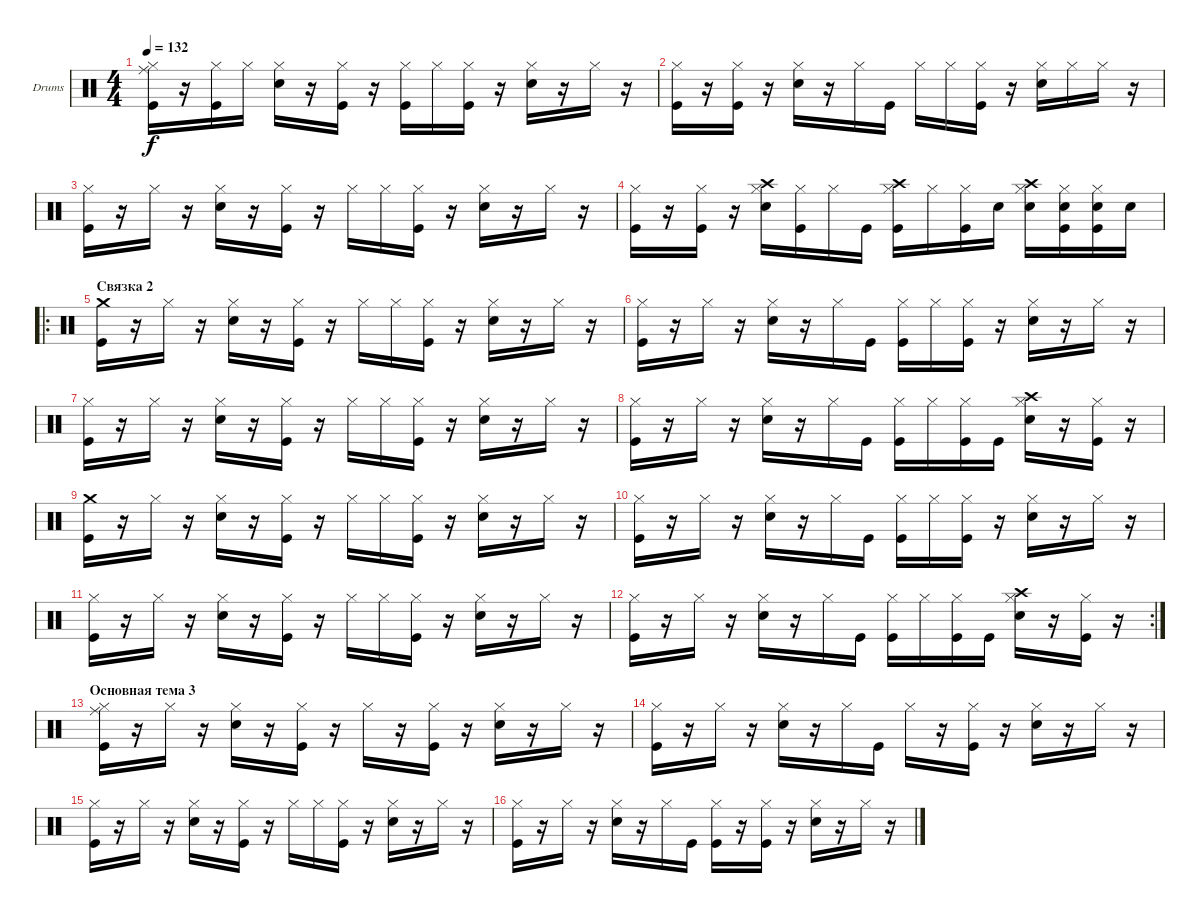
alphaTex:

\defaultSystemsLayout 4
\bracketExtendMode groupsimilarinstruments
\firstSystemTrackNameOrientation horizontal
\otherSystemsTrackNameOrientation horizontal
\track ("Drumkit" "Drums") {instrument percussion}
\staff {score}
\articulation defaults
\ts (4 4)
\tempo 132
\clef neutral
\ks c
("Kick (hit)" "Ride (middle)" "Hi-Hat (closed)").16{dy f} r.16 ("Kick (hit)" "Hi-Hat (closed)").16 "Hi-Hat (closed)".16 ("Snare (hit) 2" "Hi-Hat (closed)").16 r.16 ("Kick (hit)" "Hi-Hat (closed)").16 r.16 ("Kick (hit)" "Hi-Hat (closed)").16 "Hi-Hat (closed)".16 ("Kick (hit)" "Hi-Hat (closed)").16 r.16 ("Snare (hit) 2" "Hi-Hat (closed)").16 r.16 "Hi-Hat (closed)".16 r.16 |
("Kick (hit)" "Hi-Hat (closed)").16 r.16 ("Kick (hit)" "Hi-Hat (closed)").16 r.16 ("Snare (hit) 2" "Hi-Hat (closed)").16 r.16 "Hi-Hat (closed)".16 "Kick (hit)".16 "Hi-Hat (closed)".16 "Hi-Hat (closed)".16 ("Kick (hit)" "Hi-Hat (closed)").16 r.16 ("Snare (hit) 2" "Hi-Hat (closed)").16 "Hi-Hat (closed)".16 "Hi-Hat (closed)".16 r.16 |
("Kick (hit)" "Hi-Hat (closed)").16 r.16 "Hi-Hat (closed)".16 r.16 ("Snare (hit) 2" "Hi-Hat (closed)").16 r.16 ("Kick (hit)" "Hi-Hat (closed)").16 r.16 "Hi-Hat (closed)".16 "Hi-Hat (closed)".16 ("Kick (hit)" "Hi-Hat (closed)").16 r.16 ("Snare (hit) 2" "Hi-Hat (closed)").16 r.16 "Hi-Hat (closed)".16 r.16 |
("Kick (hit)" "Hi-Hat (closed)").16 r.16 ("Kick (hit)" "Hi-Hat (closed)").16 r.16 ("Snare (hit) 2" "Crash high (hit)" "Hi-Hat (closed)").16 ("Kick (hit)" "Hi-Hat (closed)").16 "Hi-Hat (closed)".16 "Kick (hit)".16 ("Kick (hit)" "Crash high (hit)" "Hi-Hat (closed)").16 "Hi-Hat (closed)".16 ("Kick (hit)" "Hi-Hat (closed)").16 "Snare (hit) 2".16 ("Snare (hit) 2" "Crash high (hit)" "Hi-Hat (closed)").16 ("Kick (hit)" "Snare (hit) 2" "Hi-Hat (closed)").16 ("Kick (hit)" "Snare (hit) 2" "Hi-Hat (closed)").16 "Snare (hit) 2".16 |
\ro
\section ("" "Связка 2")
("Kick (hit)" "Crash medium (hit)").16 r.16 "Hi-Hat (closed)".16 r.16 ("Snare (hit) 2" "Hi-Hat (closed)").16 r.16 ("Kick (hit)" "Hi-Hat (closed)").16 r.16 "Hi-Hat (closed)".16 "Hi-Hat (closed)".16 ("Kick (hit)" "Hi-Hat (closed)").16 r.16 ("Snare (hit) 2" "Hi-Hat (closed)").16 r.16 "Hi-Hat (closed)".16 r.16 |
("Kick (hit)" "Hi-Hat (closed)").16 r.16 "Hi-Hat (closed)".16 r.16 ("Snare (hit) 2" "Hi-Hat (closed)").16 r.16 "Hi-Hat (closed)".16 "Kick (hit)".16 ("Kick (hit)" "Hi-Hat (closed)").16 "Hi-Hat (closed)".16 ("Kick (hit)" "Hi-Hat (closed)").16 r.16 ("Snare (hit) 2" "Hi-Hat (closed)").16 r.16 "Hi-Hat (closed)".16 r.16 |
("Kick (hit)" "Hi-Hat (closed)").16 r.16 "Hi-Hat (closed)".16 r.16 ("Snare (hit) 2" "Hi-Hat (closed)").16 r.16 ("Kick (hit)" "Hi-Hat (closed)").16 r.16 "Hi-Hat (closed)".16 "Hi-Hat (closed)".16 ("Kick (hit)" "Hi-Hat (closed)").16 r.16 ("Snare (hit) 2" "Hi-Hat (closed)").16 r.16 "Hi-Hat (closed)".16 r.16 |
("Kick (hit)" "Hi-Hat (closed)").16 r.16 "Hi-Hat (closed)".16 r.16 ("Snare (hit) 2" "Hi-Hat (closed)").16 r.16 "Hi-Hat (closed)".16 "Kick (hit)".16 ("Kick (hit)" "Hi-Hat (closed)").16 "Hi-Hat (closed)".16 ("Kick (hit)" "Hi-Hat (closed)").16 "Kick (hit)".16 ("Snare (hit) 2" "Crash high (hit)" "Hi-Hat (closed)").16 r.16 ("Kick (hit)" "Hi-Hat (closed)").16 r.16 |
("Kick (hit)" "Crash medium (hit)").16 r.16 "Hi-Hat (closed)".16 r.16 ("Snare (hit) 2" "Hi-Hat (closed)").16 r.16 ("Kick (hit)" "Hi-Hat (closed)").16 r.16 "Hi-Hat (closed)".16 "Hi-Hat (closed)".16 ("Kick (hit)" "Hi-Hat (closed)").16 r.16 ("Snare (hit) 2" "Hi-Hat (closed)").16 r.16 "Hi-Hat (closed)".16 r.16 |
("Kick (hit)" "Hi-Hat (closed)").16 r.16 "Hi-Hat (closed)".16 r.16 ("Snare (hit) 2" "Hi-Hat (closed)").16 r.16 "Hi-Hat (closed)".16 "Kick (hit)".16 ("Kick (hit)" "Hi-Hat (closed)").16 "Hi-Hat (closed)".16 ("Kick (hit)" "Hi-Hat (closed)").16 r.16 ("Snare (hit) 2" "Hi-Hat (closed)").16 r.16 "Hi-Hat (closed)".16 r.16 |
("Kick (hit)" "Hi-Hat (closed)").16 r.16 "Hi-Hat (closed)".16 r.16 ("Snare (hit) 2" "Hi-Hat (closed)").16 r.16 ("Kick (hit)" "Hi-Hat (closed)").16 r.16 "Hi-Hat (closed)".16 "Hi-Hat (closed)".16 ("Kick (hit)" "Hi-Hat (closed)").16 r.16 ("Snare (hit) 2" "Hi-Hat (closed)").16 r.16 "Hi-Hat (closed)".16 r.16 |
\rc 2
("Kick (hit)" "Hi-Hat (closed)").16 r.16 "Hi-Hat (closed)".16 r.16 ("Snare (hit) 2" "Hi-Hat (closed)").16 r.16 "Hi-Hat (closed)".16 "Kick (hit)".16 ("Kick (hit)" "Hi-Hat (closed)").16 "Hi-Hat (closed)".16 ("Kick (hit)" "Hi-Hat (closed)").16 "Kick (hit)".16 ("Snare (hit) 2" "Crash high (hit)" "Hi-Hat (closed)").16 r.16 ("Kick (hit)" "Hi-Hat (closed)").16 r.16 |
\section ("" "Основная тема 3")
("Kick (hit)" "Ride (middle)" "Hi-Hat (closed)").16 r.16 "Hi-Hat (closed)".16 r.16 ("Snare (hit) 2" "Hi-Hat (closed)").16 r.16 ("Kick (hit)" "Hi-Hat (closed)").16 r.16 "Hi-Hat (closed)".16 r.16 ("Kick (hit)" "Hi-Hat (closed)").16 r.16 ("Snare (hit) 2" "Hi-Hat (closed)").16 r.16 "Hi-Hat (closed)".16 r.16 |
("Kick (hit)" "Hi-Hat (closed)").16 r.16 "Hi-Hat (closed)".16 r.16 ("Snare (hit) 2" "Hi-Hat (closed)").16 r.16 "Hi-Hat (closed)".16 "Kick (hit)".16 "Hi-Hat (closed)".16 r.16 ("Kick (hit)" "Hi-Hat (closed)").16 r.16 ("Snare (hit) 2" "Hi-Hat (closed)").16 r.16 "Hi-Hat (closed)".16 r.16 |
("Kick (hit)" "Hi-Hat (closed)").16 r.16 "Hi-Hat (closed)".16 r.16 ("Snare (hit) 2" "Hi-Hat (closed)").16 r.16 ("Kick (hit)" "Hi-Hat (closed)").16 r.16 "Hi-Hat (closed)".16 "Hi-Hat (closed)".16 ("Kick (hit)" "Hi-Hat (closed)").16 r.16 ("Snare (hit) 2" "Hi-Hat (closed)").16 r.16 "Hi-Hat (closed)".16 r.16 |
("Kick (hit)" "Hi-Hat (closed)").16 r.16 "Hi-Hat (closed)".16 r.16 ("Snare (hit) 2" "Hi-Hat (closed)").16 r.16 "Hi-Hat (closed)".16 "Kick (hit)".16 ("Kick (hit)" "Hi-Hat (closed)").16 r.16 ("Kick (hit)" "Hi-Hat (closed)").16 r.16 ("Snare (hit) 2" "Hi-Hat (closed)").16 r.16 "Hi-Hat (closed)".16 r.16
